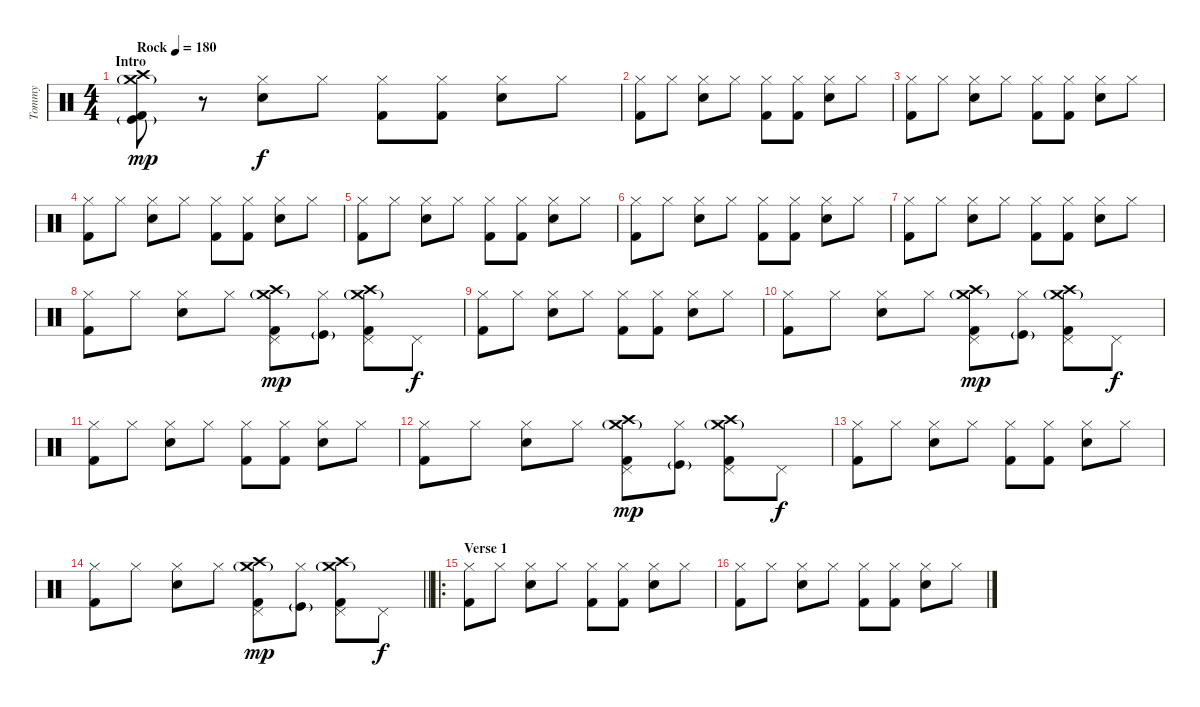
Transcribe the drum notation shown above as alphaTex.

\track ("Tommy" "Tommy") {instrument percussion}
\staff {score}
\articulation defaults
\ts (4 4)
\section ("" "Intro")
\tempo (180 "Rock")
\clef neutral
\ks c
("Crash medium (hit)"{g} "Crash high (hit)" "Kick (hit) 2" "Kick (hit)"{g}).8{dy mp} r.8 ("Hi-Hat (closed)" "Electric Snare (hit)").8{dy f} "Hi-Hat (closed)".8 ("Hi-Hat (closed)" "Kick (hit) 2").8 ("Hi-Hat (closed)" "Kick (hit) 2").8 ("Hi-Hat (closed)" "Electric Snare (hit)").8 "Hi-Hat (closed)".8 |
("Hi-Hat (closed)" "Kick (hit) 2").8 "Hi-Hat (closed)".8 ("Hi-Hat (closed)" "Electric Snare (hit)").8 "Hi-Hat (closed)".8 ("Hi-Hat (closed)" "Kick (hit) 2").8 ("Hi-Hat (closed)" "Kick (hit) 2").8 ("Hi-Hat (closed)" "Electric Snare (hit)").8 "Hi-Hat (closed)".8 |
("Hi-Hat (closed)" "Kick (hit) 2").8 "Hi-Hat (closed)".8 ("Hi-Hat (closed)" "Electric Snare (hit)").8 "Hi-Hat (closed)".8 ("Hi-Hat (closed)" "Kick (hit) 2").8 ("Hi-Hat (closed)" "Kick (hit) 2").8 ("Hi-Hat (closed)" "Electric Snare (hit)").8 "Hi-Hat (closed)".8 |
("Hi-Hat (closed)" "Kick (hit) 2").8 "Hi-Hat (closed)".8 ("Hi-Hat (closed)" "Electric Snare (hit)").8 "Hi-Hat (closed)".8 ("Hi-Hat (closed)" "Kick (hit) 2").8 ("Hi-Hat (closed)" "Kick (hit) 2").8 ("Hi-Hat (closed)" "Electric Snare (hit)").8 "Hi-Hat (closed)".8 |
("Hi-Hat (closed)" "Kick (hit) 2").8 "Hi-Hat (closed)".8 ("Hi-Hat (closed)" "Electric Snare (hit)").8 "Hi-Hat (closed)".8 ("Hi-Hat (closed)" "Kick (hit) 2").8 ("Hi-Hat (closed)" "Kick (hit) 2").8 ("Hi-Hat (closed)" "Electric Snare (hit)").8 "Hi-Hat (closed)".8 |
("Hi-Hat (closed)" "Kick (hit) 2").8 "Hi-Hat (closed)".8 ("Hi-Hat (closed)" "Electric Snare (hit)").8 "Hi-Hat (closed)".8 ("Hi-Hat (closed)" "Kick (hit) 2").8 ("Hi-Hat (closed)" "Kick (hit) 2").8 ("Hi-Hat (closed)" "Electric Snare (hit)").8 "Hi-Hat (closed)".8 |
("Hi-Hat (closed)" "Kick (hit) 2").8 "Hi-Hat (closed)".8 ("Hi-Hat (closed)" "Electric Snare (hit)").8 "Hi-Hat (closed)".8 ("Hi-Hat (closed)" "Kick (hit) 2").8 ("Hi-Hat (closed)" "Kick (hit) 2").8 ("Hi-Hat (closed)" "Electric Snare (hit)").8 "Hi-Hat (closed)".8 |
("Hi-Hat (closed)" "Kick (hit) 2").8 "Hi-Hat (closed)".8 ("Hi-Hat (closed)" "Electric Snare (hit)").8 "Hi-Hat (closed)".8 ("Crash medium (hit)"{g} "Crash high (hit)" "Kick (hit) 2" "Pedal Hi-Hat (hit)").8{dy mp} ("Hi-Hat (closed)" "Kick (hit)"{g}).8 ("Crash medium (hit)"{g} "Crash high (hit)" "Kick (hit) 2" "Pedal Hi-Hat (hit)").8 "Pedal Hi-Hat (hit)".8{dy f} |
("Hi-Hat (closed)" "Kick (hit) 2").8 "Hi-Hat (closed)".8 ("Hi-Hat (closed)" "Electric Snare (hit)").8 "Hi-Hat (closed)".8 ("Hi-Hat (closed)" "Kick (hit) 2").8 ("Hi-Hat (closed)" "Kick (hit) 2").8 ("Hi-Hat (closed)" "Electric Snare (hit)").8 "Hi-Hat (closed)".8 |
("Hi-Hat (closed)" "Kick (hit) 2").8 "Hi-Hat (closed)".8 ("Hi-Hat (closed)" "Electric Snare (hit)").8 "Hi-Hat (closed)".8 ("Crash medium (hit)"{g} "Crash high (hit)" "Kick (hit) 2" "Pedal Hi-Hat (hit)").8{dy mp} ("Hi-Hat (closed)" "Kick (hit)"{g}).8 ("Crash medium (hit)"{g} "Crash high (hit)" "Kick (hit) 2" "Pedal Hi-Hat (hit)").8 "Pedal Hi-Hat (hit)".8{dy f} |
("Hi-Hat (closed)" "Kick (hit) 2").8 "Hi-Hat (closed)".8 ("Hi-Hat (closed)" "Electric Snare (hit)").8 "Hi-Hat (closed)".8 ("Hi-Hat (closed)" "Kick (hit) 2").8 ("Hi-Hat (closed)" "Kick (hit) 2").8 ("Hi-Hat (closed)" "Electric Snare (hit)").8 "Hi-Hat (closed)".8 |
("Hi-Hat (closed)" "Kick (hit) 2").8 "Hi-Hat (closed)".8 ("Hi-Hat (closed)" "Electric Snare (hit)").8 "Hi-Hat (closed)".8 ("Crash medium (hit)"{g} "Crash high (hit)" "Kick (hit) 2" "Pedal Hi-Hat (hit)").8{dy mp} ("Hi-Hat (closed)" "Kick (hit)"{g}).8 ("Crash medium (hit)"{g} "Crash high (hit)" "Kick (hit) 2" "Pedal Hi-Hat (hit)").8 "Pedal Hi-Hat (hit)".8{dy f} |
("Hi-Hat (closed)" "Kick (hit) 2").8 "Hi-Hat (closed)".8 ("Hi-Hat (closed)" "Electric Snare (hit)").8 "Hi-Hat (closed)".8 ("Hi-Hat (closed)" "Kick (hit) 2").8 ("Hi-Hat (closed)" "Kick (hit) 2").8 ("Hi-Hat (closed)" "Electric Snare (hit)").8 "Hi-Hat (closed)".8 |
\barLineRight lightlight
("Hi-Hat (closed)" "Kick (hit) 2").8 "Hi-Hat (closed)".8 ("Hi-Hat (closed)" "Electric Snare (hit)").8 "Hi-Hat (closed)".8 ("Crash medium (hit)"{g} "Crash high (hit)" "Kick (hit) 2" "Pedal Hi-Hat (hit)").8{dy mp} ("Hi-Hat (closed)" "Kick (hit)"{g}).8 ("Crash medium (hit)"{g} "Crash high (hit)" "Kick (hit) 2" "Pedal Hi-Hat (hit)").8 "Pedal Hi-Hat (hit)".8{dy f} |
\ro
\section ("" "Verse 1")
("Hi-Hat (closed)" "Kick (hit) 2").8 "Hi-Hat (closed)".8 ("Hi-Hat (closed)" "Electric Snare (hit)").8 "Hi-Hat (closed)".8 ("Hi-Hat (closed)" "Kick (hit) 2").8 ("Hi-Hat (closed)" "Kick (hit) 2").8 ("Hi-Hat (closed)" "Electric Snare (hit)").8 "Hi-Hat (closed)".8 |
("Hi-Hat (closed)" "Kick (hit) 2").8 "Hi-Hat (closed)".8 ("Hi-Hat (closed)" "Electric Snare (hit)").8 "Hi-Hat (closed)".8 ("Hi-Hat (closed)" "Kick (hit) 2").8 ("Hi-Hat (closed)" "Kick (hit) 2").8 ("Hi-Hat (closed)" "Electric Snare (hit)").8 "Hi-Hat (closed)".8
